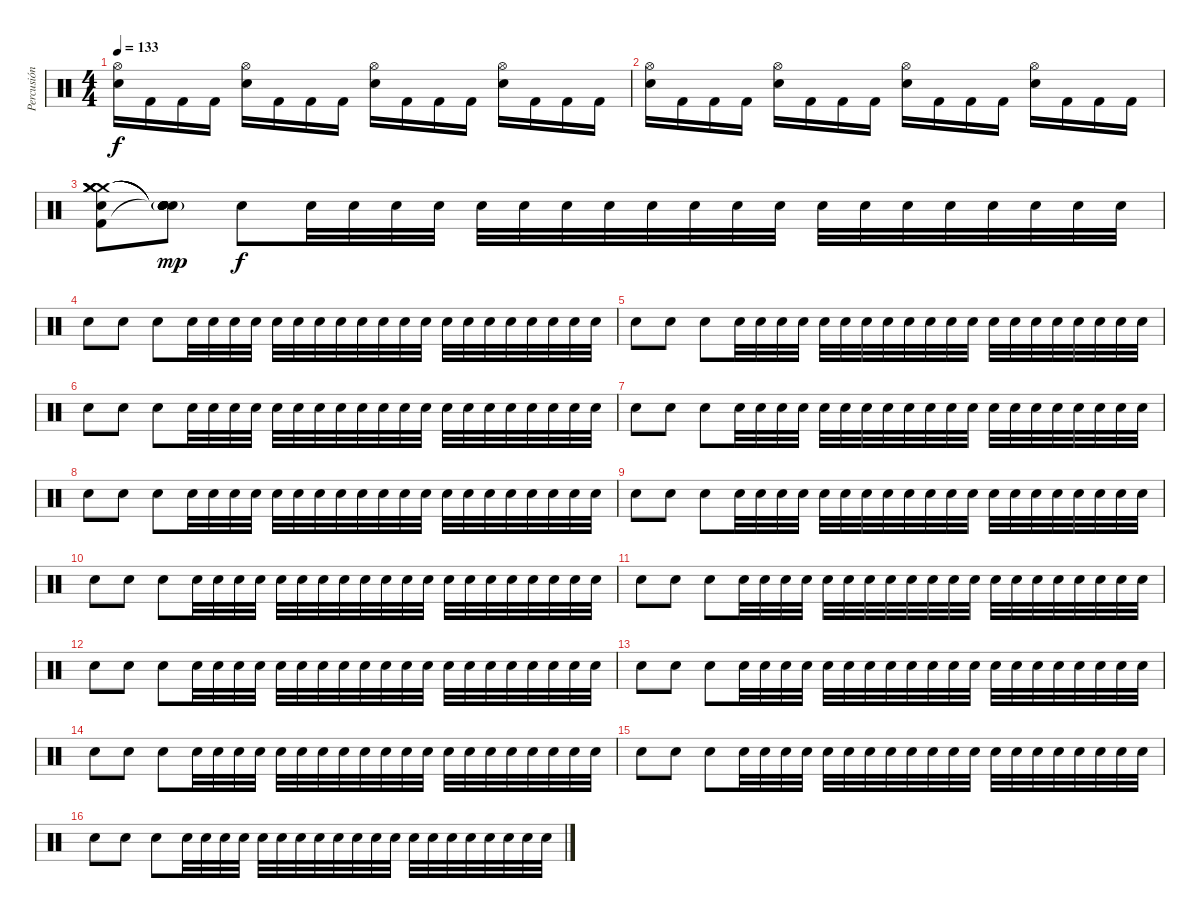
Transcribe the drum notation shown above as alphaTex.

\track ("Percusión" "Percusión") {instrument percussion}
\staff {score}
\articulation defaults
\ts (4 4)
\tempo 133
\clef neutral
\ks c
("Snare (hit) 2" "Hi-Hat (open)").16{dy f} "Kick (hit) 2".16 "Kick (hit) 2".16 "Kick (hit) 2".16 ("Snare (hit) 2" "Hi-Hat (open)").16 "Kick (hit) 2".16 "Kick (hit) 2".16 "Kick (hit) 2".16 ("Snare (hit) 2" "Hi-Hat (open)").16 "Kick (hit) 2".16 "Kick (hit) 2".16 "Kick (hit) 2".16 ("Snare (hit) 2" "Hi-Hat (open)").16 "Kick (hit) 2".16 "Kick (hit) 2".16 "Kick (hit) 2".16 |
("Snare (hit) 2" "Hi-Hat (open)").16 "Kick (hit) 2".16 "Kick (hit) 2".16 "Kick (hit) 2".16 ("Snare (hit) 2" "Hi-Hat (open)").16 "Kick (hit) 2".16 "Kick (hit) 2".16 "Kick (hit) 2".16 ("Snare (hit) 2" "Hi-Hat (open)").16 "Kick (hit) 2".16 "Kick (hit) 2".16 "Kick (hit) 2".16 ("Snare (hit) 2" "Hi-Hat (open)").16 "Kick (hit) 2".16 "Kick (hit) 2".16 "Kick (hit) 2".16 |
("Kick (hit) 2" "Crash medium (hit)" "Crash medium (hit)" "Crash medium (hit)" "Crash medium (hit)" "Snare (hit) 2").8 ("Snare (hit)"{t} "Snare (hit)"{t} "Snare (hit)"{t} "Snare (hit)"{t} "Snare (hit)"{t} "Snare (hit) 2"{g}).8{dy mp} "Snare (hit) 2".8{dy f volume 6} "Snare (hit) 2".32 "Snare (hit) 2".32 "Snare (hit) 2".32 "Snare (hit) 2".32 "Snare (hit) 2".32 "Snare (hit) 2".32 "Snare (hit) 2".32 "Snare (hit) 2".32 "Snare (hit) 2".32 "Snare (hit) 2".32 "Snare (hit) 2".32 "Snare (hit) 2".32 "Snare (hit) 2".32 "Snare (hit) 2".32 "Snare (hit) 2".32 "Snare (hit) 2".32 "Snare (hit) 2".32 "Snare (hit) 2".32 "Snare (hit) 2".32 "Snare (hit) 2".32 |
"Snare (hit) 2".8{volume 5} "Snare (hit) 2".8 "Snare (hit) 2".8 "Snare (hit) 2".32 "Snare (hit) 2".32 "Snare (hit) 2".32 "Snare (hit) 2".32 "Snare (hit) 2".32 "Snare (hit) 2".32 "Snare (hit) 2".32 "Snare (hit) 2".32 "Snare (hit) 2".32 "Snare (hit) 2".32 "Snare (hit) 2".32 "Snare (hit) 2".32 "Snare (hit) 2".32 "Snare (hit) 2".32 "Snare (hit) 2".32 "Snare (hit) 2".32 "Snare (hit) 2".32 "Snare (hit) 2".32 "Snare (hit) 2".32 "Snare (hit) 2".32 |
"Snare (hit) 2".8 "Snare (hit) 2".8 "Snare (hit) 2".8 "Snare (hit) 2".32 "Snare (hit) 2".32 "Snare (hit) 2".32 "Snare (hit) 2".32 "Snare (hit) 2".32 "Snare (hit) 2".32 "Snare (hit) 2".32 "Snare (hit) 2".32 "Snare (hit) 2".32 "Snare (hit) 2".32 "Snare (hit) 2".32 "Snare (hit) 2".32 "Snare (hit) 2".32 "Snare (hit) 2".32 "Snare (hit) 2".32 "Snare (hit) 2".32 "Snare (hit) 2".32 "Snare (hit) 2".32 "Snare (hit) 2".32 "Snare (hit) 2".32 |
"Snare (hit) 2".8 "Snare (hit) 2".8 "Snare (hit) 2".8 "Snare (hit) 2".32 "Snare (hit) 2".32 "Snare (hit) 2".32 "Snare (hit) 2".32 "Snare (hit) 2".32 "Snare (hit) 2".32 "Snare (hit) 2".32 "Snare (hit) 2".32 "Snare (hit) 2".32 "Snare (hit) 2".32 "Snare (hit) 2".32 "Snare (hit) 2".32 "Snare (hit) 2".32 "Snare (hit) 2".32 "Snare (hit) 2".32 "Snare (hit) 2".32 "Snare (hit) 2".32 "Snare (hit) 2".32 "Snare (hit) 2".32 "Snare (hit) 2".32 |
"Snare (hit) 2".8 "Snare (hit) 2".8 "Snare (hit) 2".8 "Snare (hit) 2".32 "Snare (hit) 2".32 "Snare (hit) 2".32 "Snare (hit) 2".32 "Snare (hit) 2".32 "Snare (hit) 2".32 "Snare (hit) 2".32 "Snare (hit) 2".32 "Snare (hit) 2".32 "Snare (hit) 2".32 "Snare (hit) 2".32 "Snare (hit) 2".32 "Snare (hit) 2".32 "Snare (hit) 2".32 "Snare (hit) 2".32 "Snare (hit) 2".32 "Snare (hit) 2".32 "Snare (hit) 2".32 "Snare (hit) 2".32 "Snare (hit) 2".32 |
"Snare (hit) 2".8{volume 5} "Snare (hit) 2".8 "Snare (hit) 2".8 "Snare (hit) 2".32 "Snare (hit) 2".32 "Snare (hit) 2".32 "Snare (hit) 2".32 "Snare (hit) 2".32 "Snare (hit) 2".32 "Snare (hit) 2".32 "Snare (hit) 2".32 "Snare (hit) 2".32 "Snare (hit) 2".32 "Snare (hit) 2".32 "Snare (hit) 2".32 "Snare (hit) 2".32 "Snare (hit) 2".32 "Snare (hit) 2".32 "Snare (hit) 2".32 "Snare (hit) 2".32 "Snare (hit) 2".32 "Snare (hit) 2".32 "Snare (hit) 2".32 |
"Snare (hit) 2".8 "Snare (hit) 2".8 "Snare (hit) 2".8 "Snare (hit) 2".32 "Snare (hit) 2".32 "Snare (hit) 2".32 "Snare (hit) 2".32 "Snare (hit) 2".32 "Snare (hit) 2".32 "Snare (hit) 2".32 "Snare (hit) 2".32 "Snare (hit) 2".32 "Snare (hit) 2".32 "Snare (hit) 2".32 "Snare (hit) 2".32 "Snare (hit) 2".32 "Snare (hit) 2".32 "Snare (hit) 2".32 "Snare (hit) 2".32 "Snare (hit) 2".32 "Snare (hit) 2".32 "Snare (hit) 2".32 "Snare (hit) 2".32 |
"Snare (hit) 2".8 "Snare (hit) 2".8 "Snare (hit) 2".8 "Snare (hit) 2".32 "Snare (hit) 2".32 "Snare (hit) 2".32 "Snare (hit) 2".32 "Snare (hit) 2".32 "Snare (hit) 2".32 "Snare (hit) 2".32 "Snare (hit) 2".32 "Snare (hit) 2".32 "Snare (hit) 2".32 "Snare (hit) 2".32 "Snare (hit) 2".32 "Snare (hit) 2".32 "Snare (hit) 2".32 "Snare (hit) 2".32 "Snare (hit) 2".32 "Snare (hit) 2".32 "Snare (hit) 2".32 "Snare (hit) 2".32 "Snare (hit) 2".32 |
"Snare (hit) 2".8{volume 5} "Snare (hit) 2".8 "Snare (hit) 2".8 "Snare (hit) 2".32 "Snare (hit) 2".32 "Snare (hit) 2".32 "Snare (hit) 2".32 "Snare (hit) 2".32 "Snare (hit) 2".32 "Snare (hit) 2".32 "Snare (hit) 2".32 "Snare (hit) 2".32 "Snare (hit) 2".32 "Snare (hit) 2".32 "Snare (hit) 2".32 "Snare (hit) 2".32 "Snare (hit) 2".32 "Snare (hit) 2".32 "Snare (hit) 2".32 "Snare (hit) 2".32 "Snare (hit) 2".32 "Snare (hit) 2".32 "Snare (hit) 2".32 |
"Snare (hit) 2".8 "Snare (hit) 2".8 "Snare (hit) 2".8 "Snare (hit) 2".32 "Snare (hit) 2".32 "Snare (hit) 2".32 "Snare (hit) 2".32 "Snare (hit) 2".32 "Snare (hit) 2".32 "Snare (hit) 2".32 "Snare (hit) 2".32 "Snare (hit) 2".32 "Snare (hit) 2".32 "Snare (hit) 2".32 "Snare (hit) 2".32 "Snare (hit) 2".32 "Snare (hit) 2".32 "Snare (hit) 2".32 "Snare (hit) 2".32 "Snare (hit) 2".32 "Snare (hit) 2".32 "Snare (hit) 2".32 "Snare (hit) 2".32 |
"Snare (hit) 2".8 "Snare (hit) 2".8 "Snare (hit) 2".8 "Snare (hit) 2".32 "Snare (hit) 2".32 "Snare (hit) 2".32 "Snare (hit) 2".32 "Snare (hit) 2".32 "Snare (hit) 2".32 "Snare (hit) 2".32 "Snare (hit) 2".32 "Snare (hit) 2".32 "Snare (hit) 2".32 "Snare (hit) 2".32 "Snare (hit) 2".32 "Snare (hit) 2".32 "Snare (hit) 2".32 "Snare (hit) 2".32 "Snare (hit) 2".32 "Snare (hit) 2".32 "Snare (hit) 2".32 "Snare (hit) 2".32 "Snare (hit) 2".32 |
"Snare (hit) 2".8{volume 5} "Snare (hit) 2".8 "Snare (hit) 2".8 "Snare (hit) 2".32 "Snare (hit) 2".32 "Snare (hit) 2".32 "Snare (hit) 2".32 "Snare (hit) 2".32 "Snare (hit) 2".32 "Snare (hit) 2".32 "Snare (hit) 2".32 "Snare (hit) 2".32 "Snare (hit) 2".32 "Snare (hit) 2".32 "Snare (hit) 2".32 "Snare (hit) 2".32 "Snare (hit) 2".32 "Snare (hit) 2".32 "Snare (hit) 2".32 "Snare (hit) 2".32 "Snare (hit) 2".32 "Snare (hit) 2".32 "Snare (hit) 2".32 |
"Snare (hit) 2".8 "Snare (hit) 2".8 "Snare (hit) 2".8 "Snare (hit) 2".32 "Snare (hit) 2".32 "Snare (hit) 2".32 "Snare (hit) 2".32 "Snare (hit) 2".32 "Snare (hit) 2".32 "Snare (hit) 2".32 "Snare (hit) 2".32 "Snare (hit) 2".32 "Snare (hit) 2".32 "Snare (hit) 2".32 "Snare (hit) 2".32 "Snare (hit) 2".32 "Snare (hit) 2".32 "Snare (hit) 2".32 "Snare (hit) 2".32 "Snare (hit) 2".32 "Snare (hit) 2".32 "Snare (hit) 2".32 "Snare (hit) 2".32 |
"Snare (hit) 2".8 "Snare (hit) 2".8 "Snare (hit) 2".8 "Snare (hit) 2".32 "Snare (hit) 2".32 "Snare (hit) 2".32 "Snare (hit) 2".32 "Snare (hit) 2".32 "Snare (hit) 2".32 "Snare (hit) 2".32 "Snare (hit) 2".32 "Snare (hit) 2".32 "Snare (hit) 2".32 "Snare (hit) 2".32 "Snare (hit) 2".32 "Snare (hit) 2".32 "Snare (hit) 2".32 "Snare (hit) 2".32 "Snare (hit) 2".32 "Snare (hit) 2".32 "Snare (hit) 2".32 "Snare (hit) 2".32 "Snare (hit) 2".32
